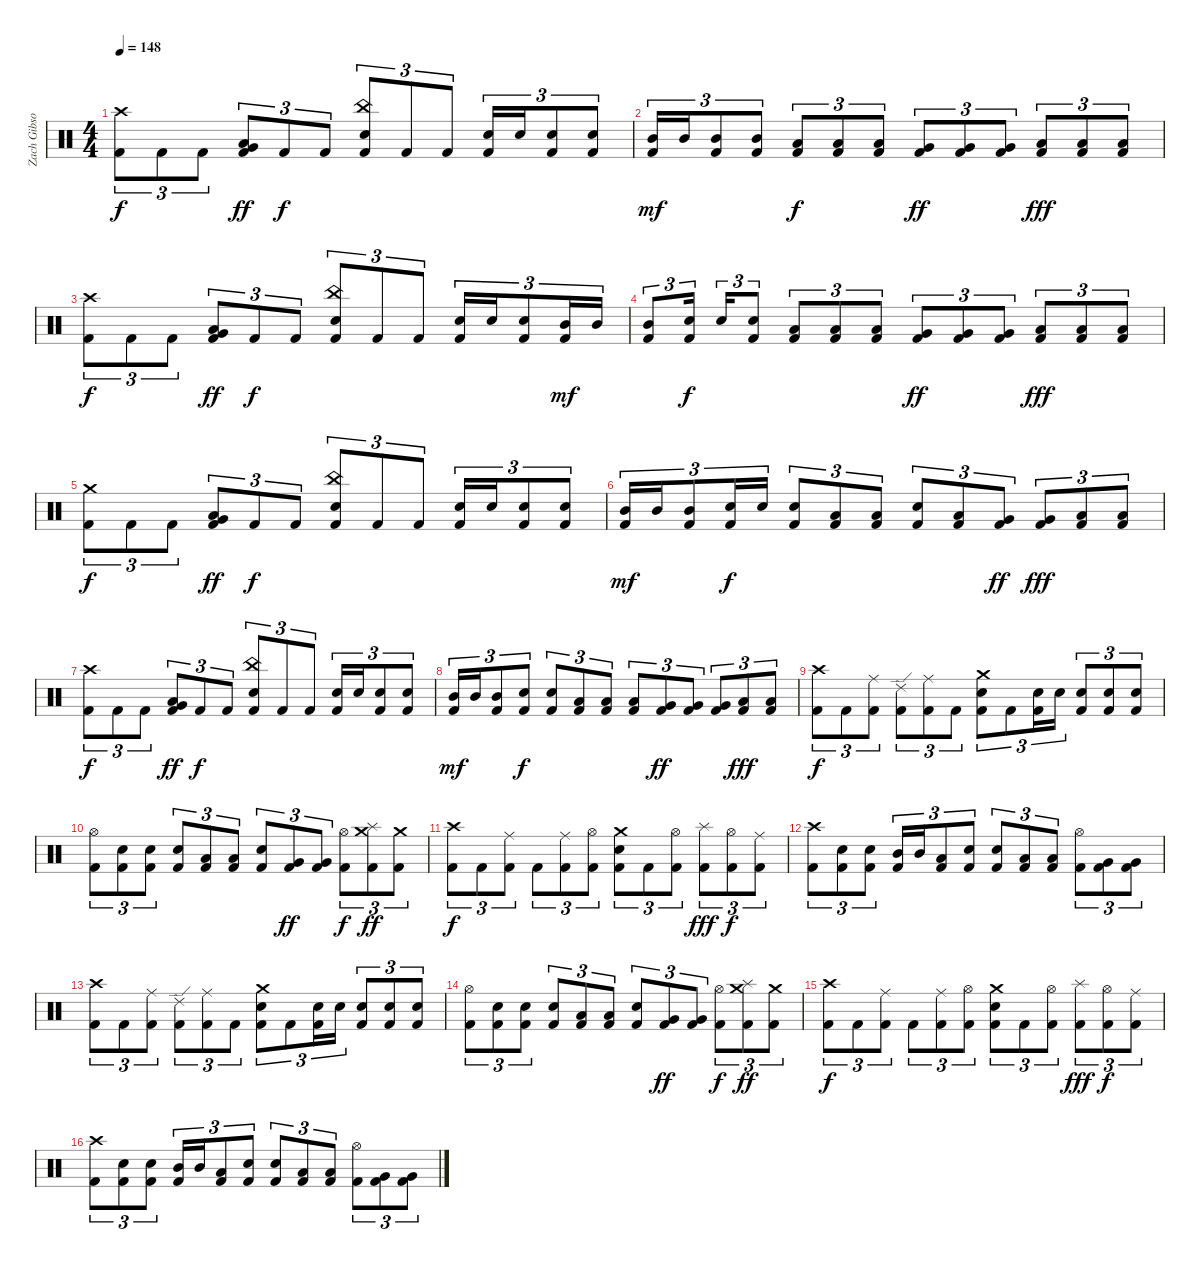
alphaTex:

\track ("Zach Gibson (Ex-Drums)" "Zach Gibso") {instrument percussion}
\staff {score}
\articulation defaults
\ts (4 4)
\tempo 148
\clef neutral
\ks c
("Crash high (hit)" "Kick (hit) 2").8{tu (3 2) dy f} "Kick (hit) 2".8{tu (3 2)} "Kick (hit) 2".8{tu (3 2)} ("Very Low Tom (hit)" "Low Tom (hit)" "Kick (hit) 2").8{tu (3 2) dy ff} "Kick (hit) 2".8{tu (3 2) dy f} "Kick (hit) 2".8{tu (3 2)} ("China (hit)" "Snare (hit) 2" "Kick (hit) 2").8{tu (3 2)} "Kick (hit) 2".8{tu (3 2)} "Kick (hit) 2".8{tu (3 2)} ("Snare (hit) 2" "Kick (hit) 2").16{tu (3 2)} "Snare (hit) 2".16{tu (3 2)} ("Snare (hit) 2" "Kick (hit) 2").8{tu (3 2)} ("Snare (hit) 2" "Kick (hit) 2").8{tu (3 2)} |
("Mid Tom (hit)" "Kick (hit) 2").16{tu (3 2) dy mf} "Mid Tom (hit)".16{tu (3 2)} ("Mid Tom (hit)" "Kick (hit) 2").8{tu (3 2)} ("Mid Tom (hit)" "Kick (hit) 2").8{tu (3 2)} ("Low Tom (hit)" "Kick (hit) 2").8{tu (3 2) dy f} ("Low Tom (hit)" "Kick (hit) 2").8{tu (3 2)} ("Low Tom (hit)" "Kick (hit) 2").8{tu (3 2)} ("Very Low Tom (hit)" "Kick (hit) 2").8{tu (3 2) dy ff} ("Very Low Tom (hit)" "Kick (hit) 2").8{tu (3 2)} ("Very Low Tom (hit)" "Kick (hit) 2").8{tu (3 2)} ("Low Floor Tom (hit)" "Kick (hit) 2").8{tu (3 2) dy fff} ("Low Floor Tom (hit)" "Kick (hit) 2").8{tu (3 2)} ("Low Floor Tom (hit)" "Kick (hit) 2").8{tu (3 2)} |
("Crash high (hit)" "Kick (hit) 2").8{tu (3 2) dy f} "Kick (hit) 2".8{tu (3 2)} "Kick (hit) 2".8{tu (3 2)} ("Very Low Tom (hit)" "Low Tom (hit)" "Kick (hit) 2").8{tu (3 2) dy ff} "Kick (hit) 2".8{tu (3 2) dy f} "Kick (hit) 2".8{tu (3 2)} ("China (hit)" "Snare (hit) 2" "Kick (hit) 2").8{tu (3 2)} "Kick (hit) 2".8{tu (3 2)} "Kick (hit) 2".8{tu (3 2)} ("Snare (hit) 2" "Kick (hit) 2").16{tu (3 2)} "Snare (hit) 2".16{tu (3 2)} ("Snare (hit) 2" "Kick (hit) 2").8{tu (3 2)} ("Mid Tom (hit)" "Kick (hit) 2").16{tu (3 2) dy mf} "Mid Tom (hit)".16{tu (3 2)} |
("Mid Tom (hit)" "Kick (hit) 2").8{tu (3 2)} ("Snare (hit) 2" "Kick (hit) 2").16{tu (3 2) dy f} "Snare (hit) 2".16{tu (3 2)} ("Snare (hit) 2" "Kick (hit) 2").8{tu (3 2)} ("Low Tom (hit)" "Kick (hit) 2").8{tu (3 2)} ("Low Tom (hit)" "Kick (hit) 2").8{tu (3 2)} ("Low Tom (hit)" "Kick (hit) 2").8{tu (3 2)} ("Very Low Tom (hit)" "Kick (hit) 2").8{tu (3 2) dy ff} ("Very Low Tom (hit)" "Kick (hit) 2").8{tu (3 2)} ("Very Low Tom (hit)" "Kick (hit) 2").8{tu (3 2)} ("Low Floor Tom (hit)" "Kick (hit) 2").8{tu (3 2) dy fff} ("Low Floor Tom (hit)" "Kick (hit) 2").8{tu (3 2)} ("Low Floor Tom (hit)" "Kick (hit) 2").8{tu (3 2)} |
("Crash medium (hit)" "Kick (hit) 2").8{tu (3 2) dy f} "Kick (hit) 2".8{tu (3 2)} "Kick (hit) 2".8{tu (3 2)} ("Very Low Tom (hit)" "Low Tom (hit)" "Kick (hit) 2").8{tu (3 2) dy ff} "Kick (hit) 2".8{tu (3 2) dy f} "Kick (hit) 2".8{tu (3 2)} ("China (hit)" "Snare (hit) 2" "Kick (hit) 2").8{tu (3 2)} "Kick (hit) 2".8{tu (3 2)} "Kick (hit) 2".8{tu (3 2)} ("Snare (hit) 2" "Kick (hit) 2").16{tu (3 2)} "Snare (hit) 2".16{tu (3 2)} ("Snare (hit) 2" "Kick (hit) 2").8{tu (3 2)} ("Snare (hit) 2" "Kick (hit) 2").8{tu (3 2)} |
("Mid Tom (hit)" "Kick (hit) 2").16{tu (3 2) dy mf} "Mid Tom (hit)".16{tu (3 2)} ("Mid Tom (hit)" "Kick (hit) 2").8{tu (3 2)} ("Snare (hit) 2" "Kick (hit) 2").16{tu (3 2) dy f} "Snare (hit) 2".16{tu (3 2)} ("Snare (hit) 2" "Kick (hit) 2").8{tu (3 2)} ("Low Tom (hit)" "Kick (hit) 2").8{tu (3 2)} ("Low Tom (hit)" "Kick (hit) 2").8{tu (3 2)} ("Snare (hit) 2" "Kick (hit) 2").8{tu (3 2)} ("Low Tom (hit)" "Kick (hit) 2").8{tu (3 2)} ("Very Low Tom (hit)" "Kick (hit) 2").8{tu (3 2) dy ff} ("Very Low Tom (hit)" "Kick (hit) 2").8{tu (3 2) dy fff} ("Low Floor Tom (hit)" "Kick (hit) 2").8{tu (3 2)} ("Low Floor Tom (hit)" "Kick (hit) 2").8{tu (3 2)} |
("Crash high (hit)" "Kick (hit) 2").8{tu (3 2) dy f} "Kick (hit) 2".8{tu (3 2)} "Kick (hit) 2".8{tu (3 2)} ("Very Low Tom (hit)" "Low Tom (hit)" "Kick (hit) 2").8{tu (3 2) dy ff} "Kick (hit) 2".8{tu (3 2) dy f} "Kick (hit) 2".8{tu (3 2)} ("China (hit)" "Snare (hit) 2" "Kick (hit) 2").8{tu (3 2)} "Kick (hit) 2".8{tu (3 2)} "Kick (hit) 2".8{tu (3 2)} ("Snare (hit) 2" "Kick (hit) 2").16{tu (3 2)} "Snare (hit) 2".16{tu (3 2)} ("Snare (hit) 2" "Kick (hit) 2").8{tu (3 2)} ("Snare (hit) 2" "Kick (hit) 2").8{tu (3 2)} |
("Mid Tom (hit)" "Kick (hit) 2").16{tu (3 2) dy mf} "Mid Tom (hit)".16{tu (3 2)} ("Mid Tom (hit)" "Kick (hit) 2").8{tu (3 2)} ("Snare (hit) 2" "Kick (hit) 2").8{tu (3 2) dy f} ("Snare (hit) 2" "Kick (hit) 2").8{tu (3 2)} ("Low Tom (hit)" "Kick (hit) 2").8{tu (3 2)} ("Low Tom (hit)" "Kick (hit) 2").8{tu (3 2)} ("Low Tom (hit)" "Kick (hit) 2").8{tu (3 2)} ("Very Low Tom (hit)" "Kick (hit) 2").8{tu (3 2) dy ff} ("Very Low Tom (hit)" "Kick (hit) 2").8{tu (3 2)} ("Very Low Tom (hit)" "Kick (hit) 2").8{tu (3 2)} ("Low Floor Tom (hit)" "Kick (hit) 2").8{tu (3 2) dy fff} ("Low Floor Tom (hit)" "Kick (hit) 2").8{tu (3 2)} |
("Crash high (hit)" "Kick (hit) 2").8{tu (3 2) dy f} "Kick (hit) 2".8{tu (3 2)} ("Ride (middle)" "Kick (hit) 2").8{tu (3 2)} ("Ride (edge) 2" "Kick (hit) 2").8{tu (3 2)} ("Ride (middle)" "Kick (hit) 2").8{tu (3 2)} "Kick (hit) 2".8{tu (3 2)} ("Crash medium (hit)" "Snare (hit) 2" "Kick (hit) 2").8{tu (3 2)} "Kick (hit) 2".8{tu (3 2)} ("Snare (hit) 2" "Kick (hit) 2").16{tu (3 2)} "Snare (hit) 2".16{tu (3 2)} ("Snare (hit) 2" "Kick (hit) 2").8{tu (3 2)} ("Snare (hit) 2" "Kick (hit) 2").8{tu (3 2)} ("Snare (hit) 2" "Kick (hit) 2").8{tu (3 2)} |
("Hi-Hat (open)" "Kick (hit) 2").8{tu (3 2)} ("Snare (hit) 2" "Kick (hit) 2").8{tu (3 2)} ("Snare (hit) 2" "Kick (hit) 2").8{tu (3 2)} ("Snare (hit) 2" "Kick (hit) 2").8{tu (3 2)} ("Low Tom (hit)" "Kick (hit) 2").8{tu (3 2)} ("Low Tom (hit)" "Kick (hit) 2").8{tu (3 2)} ("Snare (hit) 2" "Kick (hit) 2").8{tu (3 2)} ("Very Low Tom (hit)" "Kick (hit) 2").8{tu (3 2) dy ff} ("Very Low Tom (hit)" "Kick (hit) 2").8{tu (3 2)} ("Hi-Hat (open)" "Kick (hit) 2").8{tu (3 2) dy f} ("Crash medium (hit)" "Splash (hit)" "Kick (hit) 2").8{tu (3 2) dy ff} ("Crash medium (hit)" "Kick (hit) 2").8{tu (3 2)} |
("Crash high (hit)" "Kick (hit) 2").8{tu (3 2) dy f} "Kick (hit) 2".8{tu (3 2)} ("Ride (middle)" "Kick (hit) 2").8{tu (3 2)} "Kick (hit) 2".8{tu (3 2)} ("Ride (middle)" "Kick (hit) 2").8{tu (3 2)} ("Hi-Hat (open)" "Kick (hit) 2").8{tu (3 2)} ("Crash medium (hit)" "Snare (hit) 2" "Kick (hit) 2").8{tu (3 2)} "Kick (hit) 2".8{tu (3 2)} ("Hi-Hat (open)" "Kick (hit) 2").8{tu (3 2)} ("Splash (hit)" "Kick (hit) 2").8{tu (3 2) dy fff} ("Hi-Hat (open)" "Kick (hit) 2").8{tu (3 2) dy f} ("Ride (middle)" "Kick (hit) 2").8{tu (3 2)} |
("Crash high (hit)" "Kick (hit) 2").8{tu (3 2)} ("Snare (hit) 2" "Kick (hit) 2").8{tu (3 2)} ("Snare (hit) 2" "Kick (hit) 2").8{tu (3 2)} ("Mid Tom (hit)" "Kick (hit) 2").16{tu (3 2)} "Mid Tom (hit)".16{tu (3 2)} ("Low Tom (hit)" "Kick (hit) 2").8{tu (3 2)} ("Snare (hit) 2" "Kick (hit) 2").8{tu (3 2)} ("Snare (hit) 2" "Kick (hit) 2").8{tu (3 2)} ("Low Tom (hit)" "Kick (hit) 2").8{tu (3 2)} ("Low Tom (hit)" "Kick (hit) 2").8{tu (3 2)} ("Hi-Hat (open)" "Kick (hit) 2").8{tu (3 2)} ("Very Low Tom (hit)" "Kick (hit) 2").8{tu (3 2)} ("Very Low Tom (hit)" "Kick (hit) 2").8{tu (3 2)} |
("Crash high (hit)" "Kick (hit) 2").8{tu (3 2)} "Kick (hit) 2".8{tu (3 2)} ("Ride (middle)" "Kick (hit) 2").8{tu (3 2)} ("Ride (edge) 2" "Kick (hit) 2").8{tu (3 2)} ("Ride (middle)" "Kick (hit) 2").8{tu (3 2)} "Kick (hit) 2".8{tu (3 2)} ("Crash medium (hit)" "Snare (hit) 2" "Kick (hit) 2").8{tu (3 2)} "Kick (hit) 2".8{tu (3 2)} ("Snare (hit) 2" "Kick (hit) 2").16{tu (3 2)} "Snare (hit) 2".16{tu (3 2)} ("Snare (hit) 2" "Kick (hit) 2").8{tu (3 2)} ("Snare (hit) 2" "Kick (hit) 2").8{tu (3 2)} ("Snare (hit) 2" "Kick (hit) 2").8{tu (3 2)} |
("Hi-Hat (open)" "Kick (hit) 2").8{tu (3 2)} ("Snare (hit) 2" "Kick (hit) 2").8{tu (3 2)} ("Snare (hit) 2" "Kick (hit) 2").8{tu (3 2)} ("Snare (hit) 2" "Kick (hit) 2").8{tu (3 2)} ("Low Tom (hit)" "Kick (hit) 2").8{tu (3 2)} ("Low Tom (hit)" "Kick (hit) 2").8{tu (3 2)} ("Snare (hit) 2" "Kick (hit) 2").8{tu (3 2)} ("Very Low Tom (hit)" "Kick (hit) 2").8{tu (3 2) dy ff} ("Very Low Tom (hit)" "Kick (hit) 2").8{tu (3 2)} ("Hi-Hat (open)" "Kick (hit) 2").8{tu (3 2) dy f} ("Crash medium (hit)" "Splash (hit)" "Kick (hit) 2").8{tu (3 2) dy ff} ("Crash medium (hit)" "Kick (hit) 2").8{tu (3 2)} |
("Crash high (hit)" "Kick (hit) 2").8{tu (3 2) dy f} "Kick (hit) 2".8{tu (3 2)} ("Ride (middle)" "Kick (hit) 2").8{tu (3 2)} "Kick (hit) 2".8{tu (3 2)} ("Ride (middle)" "Kick (hit) 2").8{tu (3 2)} ("Hi-Hat (open)" "Kick (hit) 2").8{tu (3 2)} ("Crash medium (hit)" "Snare (hit) 2" "Kick (hit) 2").8{tu (3 2)} "Kick (hit) 2".8{tu (3 2)} ("Hi-Hat (open)" "Kick (hit) 2").8{tu (3 2)} ("Splash (hit)" "Kick (hit) 2").8{tu (3 2) dy fff} ("Hi-Hat (open)" "Kick (hit) 2").8{tu (3 2) dy f} ("Ride (middle)" "Kick (hit) 2").8{tu (3 2)} |
("Crash high (hit)" "Kick (hit) 2").8{tu (3 2)} ("Snare (hit) 2" "Kick (hit) 2").8{tu (3 2)} ("Snare (hit) 2" "Kick (hit) 2").8{tu (3 2)} ("Mid Tom (hit)" "Kick (hit) 2").16{tu (3 2)} "Mid Tom (hit)".16{tu (3 2)} ("Low Tom (hit)" "Kick (hit) 2").8{tu (3 2)} ("Snare (hit) 2" "Kick (hit) 2").8{tu (3 2)} ("Snare (hit) 2" "Kick (hit) 2").8{tu (3 2)} ("Low Tom (hit)" "Kick (hit) 2").8{tu (3 2)} ("Low Tom (hit)" "Kick (hit) 2").8{tu (3 2)} ("Hi-Hat (open)" "Kick (hit) 2").8{tu (3 2)} ("Very Low Tom (hit)" "Kick (hit) 2").8{tu (3 2)} ("Very Low Tom (hit)" "Kick (hit) 2").8{tu (3 2)}
